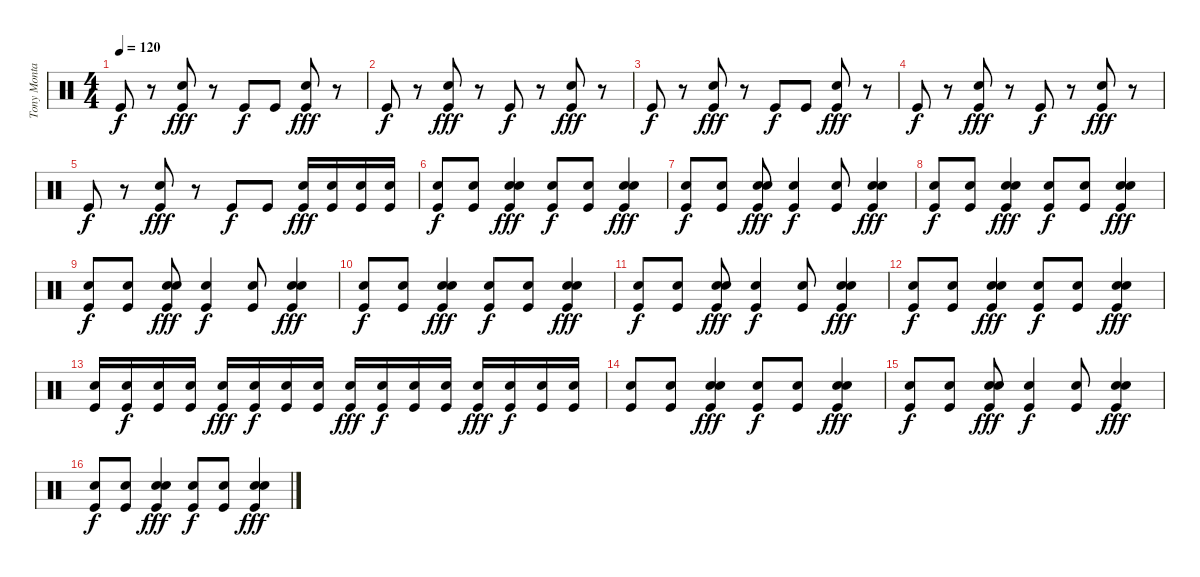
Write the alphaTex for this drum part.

\track ("Tony Montana" "Tony Monta") {instrument percussion}
\staff {score}
\articulation defaults
\ts (4 4)
\tempo 120
\clef neutral
\ks c "Kick (hit)".8{dy f}
r.8 ("Kick (hit)" "Snare (hit) 2").8{dy fff} r.8 "Kick (hit)".8{dy f} "Kick (hit)".8 ("Kick (hit)" "Snare (hit) 2").8{dy fff} r.8 |
"Kick (hit)".8{dy f} r.8 ("Kick (hit)" "Snare (hit) 2").8{dy fff} r.8 "Kick (hit)".8{dy f} r.8 ("Kick (hit)" "Snare (hit) 2").8{dy fff} r.8 |
"Kick (hit)".8{dy f} r.8 ("Kick (hit)" "Snare (hit) 2").8{dy fff} r.8 "Kick (hit)".8{dy f} "Kick (hit)".8 ("Kick (hit)" "Snare (hit) 2").8{dy fff} r.8 |
"Kick (hit)".8{dy f} r.8 ("Kick (hit)" "Snare (hit) 2").8{dy fff} r.8 "Kick (hit)".8{dy f} r.8 ("Kick (hit)" "Snare (hit) 2").8{dy fff} r.8 |
"Kick (hit)".8{dy f} r.8 ("Kick (hit)" "Snare (hit) 2").8{dy fff} r.8 "Kick (hit)".8{dy f} "Kick (hit)".8 ("Kick (hit)" "Snare (hit) 2").16{dy fff} ("Kick (hit)" "Snare (hit) 2").16 ("Kick (hit)" "Snare (hit) 2").16 ("Kick (hit)" "Snare (hit) 2").16 |
("Kick (hit)" "Snare (hit) 2").8{dy f} ("Kick (hit)" "Snare (hit) 2").8 ("Kick (hit)" "Snare (hit) 2" "Snare (hit) 2").4{dy fff} ("Kick (hit)" "Snare (hit) 2").8{dy f} ("Kick (hit)" "Snare (hit) 2").8 ("Kick (hit)" "Snare (hit) 2" "Snare (hit) 2").4{dy fff} |
("Kick (hit)" "Snare (hit) 2").8{dy f} ("Kick (hit)" "Snare (hit) 2").8 ("Kick (hit)" "Snare (hit) 2" "Snare (hit) 2").8{dy fff} ("Kick (hit)" "Snare (hit) 2").4{dy f} ("Kick (hit)" "Snare (hit) 2").8 ("Kick (hit)" "Snare (hit) 2" "Snare (hit) 2").4{dy fff} |
("Kick (hit)" "Snare (hit) 2").8{dy f} ("Kick (hit)" "Snare (hit) 2").8 ("Kick (hit)" "Snare (hit) 2" "Snare (hit) 2").4{dy fff} ("Kick (hit)" "Snare (hit) 2").8{dy f} ("Kick (hit)" "Snare (hit) 2").8 ("Kick (hit)" "Snare (hit) 2" "Snare (hit) 2").4{dy fff} |
("Kick (hit)" "Snare (hit) 2").8{dy f} ("Kick (hit)" "Snare (hit) 2").8 ("Kick (hit)" "Snare (hit) 2" "Snare (hit) 2").8{dy fff} ("Kick (hit)" "Snare (hit) 2").4{dy f} ("Kick (hit)" "Snare (hit) 2").8 ("Kick (hit)" "Snare (hit) 2" "Snare (hit) 2").4{dy fff} |
("Kick (hit)" "Snare (hit) 2").8{dy f} ("Kick (hit)" "Snare (hit) 2").8 ("Kick (hit)" "Snare (hit) 2" "Snare (hit) 2").4{dy fff} ("Kick (hit)" "Snare (hit) 2").8{dy f} ("Kick (hit)" "Snare (hit) 2").8 ("Kick (hit)" "Snare (hit) 2" "Snare (hit) 2").4{dy fff} |
("Kick (hit)" "Snare (hit) 2").8{dy f} ("Kick (hit)" "Snare (hit) 2").8 ("Kick (hit)" "Snare (hit) 2" "Snare (hit) 2").8{dy fff} ("Kick (hit)" "Snare (hit) 2").4{dy f} ("Kick (hit)" "Snare (hit) 2").8 ("Kick (hit)" "Snare (hit) 2" "Snare (hit) 2").4{dy fff} |
("Kick (hit)" "Snare (hit) 2").8{dy f} ("Kick (hit)" "Snare (hit) 2").8 ("Kick (hit)" "Snare (hit) 2" "Snare (hit) 2").4{dy fff} ("Kick (hit)" "Snare (hit) 2").8{dy f} ("Kick (hit)" "Snare (hit) 2").8 ("Kick (hit)" "Snare (hit) 2" "Snare (hit) 2").4{dy fff} |
("Kick (hit)" "Snare (hit) 2").16 ("Kick (hit)" "Snare (hit) 2").16{dy f} ("Kick (hit)" "Snare (hit) 2").16 ("Kick (hit)" "Snare (hit) 2").16 ("Kick (hit)" "Snare (hit) 2").16{dy fff} ("Kick (hit)" "Snare (hit) 2").16{dy f} ("Kick (hit)" "Snare (hit) 2").16 ("Kick (hit)" "Snare (hit) 2").16 ("Kick (hit)" "Snare (hit) 2").16{dy fff} ("Kick (hit)" "Snare (hit) 2").16{dy f} ("Kick (hit)" "Snare (hit) 2").16 ("Kick (hit)" "Snare (hit) 2").16 ("Kick (hit)" "Snare (hit) 2").16{dy fff} ("Kick (hit)" "Snare (hit) 2").16{dy f} ("Kick (hit)" "Snare (hit) 2").16 ("Kick (hit)" "Snare (hit) 2").16 |
("Kick (hit)" "Snare (hit) 2").8 ("Kick (hit)" "Snare (hit) 2").8 ("Kick (hit)" "Snare (hit) 2" "Snare (hit) 2").4{dy fff} ("Kick (hit)" "Snare (hit) 2").8{dy f} ("Kick (hit)" "Snare (hit) 2").8 ("Kick (hit)" "Snare (hit) 2" "Snare (hit) 2").4{dy fff} |
("Kick (hit)" "Snare (hit) 2").8{dy f} ("Kick (hit)" "Snare (hit) 2").8 ("Kick (hit)" "Snare (hit) 2" "Snare (hit) 2").8{dy fff} ("Kick (hit)" "Snare (hit) 2").4{dy f} ("Kick (hit)" "Snare (hit) 2").8 ("Kick (hit)" "Snare (hit) 2" "Snare (hit) 2").4{dy fff} |
("Kick (hit)" "Snare (hit) 2").8{dy f} ("Kick (hit)" "Snare (hit) 2").8 ("Kick (hit)" "Snare (hit) 2" "Snare (hit) 2").4{dy fff} ("Kick (hit)" "Snare (hit) 2").8{dy f} ("Kick (hit)" "Snare (hit) 2").8 ("Kick (hit)" "Snare (hit) 2" "Snare (hit) 2").4{dy fff}
